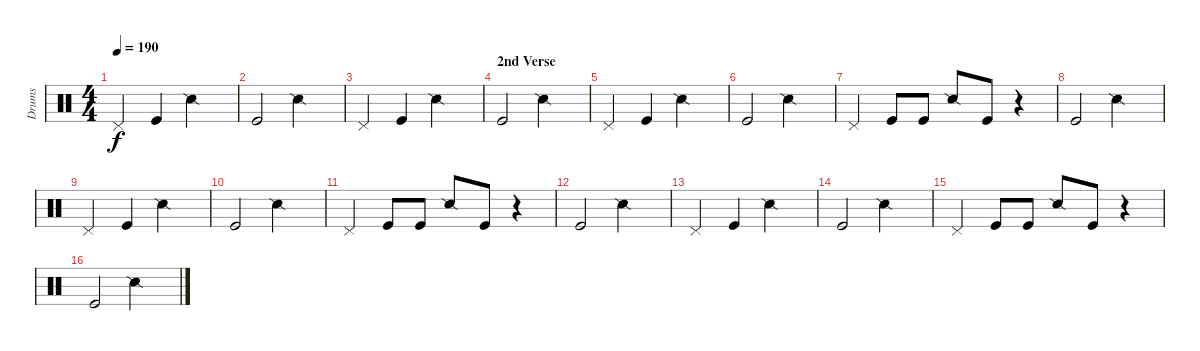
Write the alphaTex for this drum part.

\track ("Drums" "Drums") {instrument percussion}
\staff {score}
\articulation defaults
\ts (4 4)
\tempo 190
\clef neutral
\ks c "Pedal Hi-Hat (hit)".4{dy f} "Kick (hit)".4 "Snare (side stick) 2".2
|
"Kick (hit)".2 "Snare (side stick) 2".2 |
"Pedal Hi-Hat (hit)".4 "Kick (hit)".4 "Snare (side stick) 2".2 |
\section ("" "2nd Verse")
"Kick (hit)".2 "Snare (side stick) 2".2 |
"Pedal Hi-Hat (hit)".4 "Kick (hit)".4 "Snare (side stick) 2".2 |
"Kick (hit)".2 "Snare (side stick) 2".2 |
"Pedal Hi-Hat (hit)".4 "Kick (hit)".8 "Kick (hit)".8 "Snare (side stick) 2".8 "Kick (hit)".8 r.4 |
"Kick (hit)".2 "Snare (side stick) 2".2 |
"Pedal Hi-Hat (hit)".4 "Kick (hit)".4 "Snare (side stick) 2".2 |
"Kick (hit)".2 "Snare (side stick) 2".2 |
"Pedal Hi-Hat (hit)".4 "Kick (hit)".8 "Kick (hit)".8 "Snare (side stick) 2".8 "Kick (hit)".8 r.4 |
"Kick (hit)".2 "Snare (side stick) 2".2 |
"Pedal Hi-Hat (hit)".4 "Kick (hit)".4 "Snare (side stick) 2".2 |
"Kick (hit)".2 "Snare (side stick) 2".2 |
"Pedal Hi-Hat (hit)".4 "Kick (hit)".8 "Kick (hit)".8 "Snare (side stick) 2".8 "Kick (hit)".8 r.4 |
"Kick (hit)".2 "Snare (side stick) 2".2
